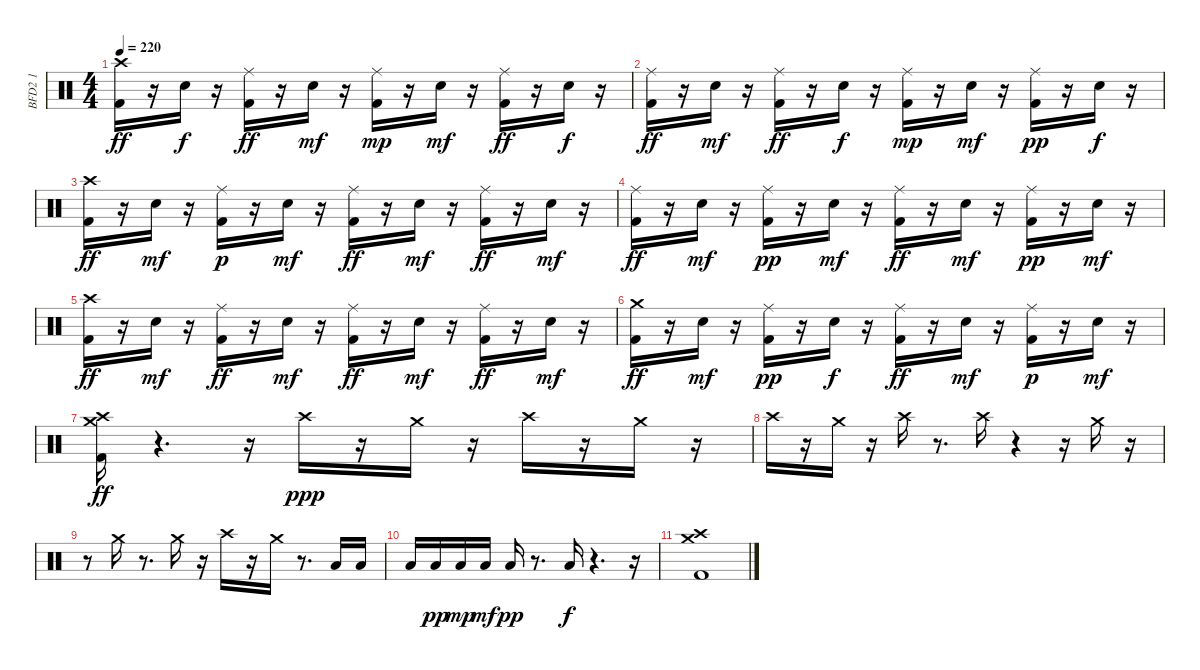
\track ("BFD2 1" "BFD2 1") {instrument percussion}
\staff {score}
\articulation defaults
\ts (4 4)
\tempo 220
\clef neutral
\ks c
("Kick (hit) 2" "Crash high (hit)").16{dy ff} r.16 "Snare (hit) 2".16{dy f} r.16 ("Ride (middle)" "Kick (hit) 2").16{dy ff} r.16 "Snare (hit) 2".16{dy mf} r.16 ("Kick (hit) 2" "Ride (middle)").16{dy mp} r.16 "Snare (hit) 2".16{dy mf} r.16 ("Ride (middle)" "Kick (hit) 2").16{dy ff} r.16 "Snare (hit) 2".16{dy f} r.16 |
("Ride (middle)" "Kick (hit) 2").16{dy ff} r.16 "Snare (hit) 2".16{dy mf} r.16 ("Ride (middle)" "Kick (hit) 2").16{dy ff} r.16 "Snare (hit) 2".16{dy f} r.16 ("Kick (hit) 2" "Ride (middle)").16{dy mp} r.16 "Snare (hit) 2".16{dy mf} r.16 ("Kick (hit) 2" "Ride (middle)").16{dy pp} r.16 "Snare (hit) 2".16{dy f} r.16 |
("Crash high (hit)" "Kick (hit) 2").16{dy ff} r.16 "Snare (hit) 2".16{dy mf} r.16 ("Kick (hit) 2" "Ride (middle)").16{dy p} r.16 "Snare (hit) 2".16{dy mf} r.16 ("Ride (middle)" "Kick (hit) 2").16{dy ff} r.16 "Snare (hit) 2".16{dy mf} r.16 ("Ride (middle)" "Kick (hit) 2").16{dy ff} r.16 "Snare (hit) 2".16{dy mf} r.16 |
("Ride (middle)" "Kick (hit) 2").16{dy ff} r.16 "Snare (hit) 2".16{dy mf} r.16 ("Kick (hit) 2" "Ride (middle)").16{dy pp} r.16 "Snare (hit) 2".16{dy mf} r.16 ("Ride (middle)" "Kick (hit) 2").16{dy ff} r.16 "Snare (hit) 2".16{dy mf} r.16 ("Kick (hit) 2" "Ride (middle)").16{dy pp} r.16 "Snare (hit) 2".16{dy mf} r.16 |
("Kick (hit) 2" "Crash high (hit)").16{dy ff} r.16 "Snare (hit) 2".16{dy mf} r.16 ("Ride (middle)" "Kick (hit) 2").16{dy ff} r.16 "Snare (hit) 2".16{dy mf} r.16 ("Ride (middle)" "Kick (hit) 2").16{dy ff} r.16 "Snare (hit) 2".16{dy mf} r.16 ("Ride (middle)" "Kick (hit) 2").16{dy ff} r.16 "Snare (hit) 2".16{dy mf} r.16 |
("Kick (hit) 2" "Crash medium (hit)").16{dy ff} r.16 "Snare (hit) 2".16{dy mf} r.16 ("Kick (hit) 2" "Ride (middle)").16{dy pp} r.16 "Snare (hit) 2".16{dy f} r.16 ("Ride (middle)" "Kick (hit) 2").16{dy ff} r.16 "Snare (hit) 2".16{dy mf} r.16 ("Kick (hit) 2" "Ride (middle)").16{dy p} r.16 "Snare (hit) 2".16{dy mf} r.16 |
("Crash high (hit)" "Crash medium (hit)" "Kick (hit) 2").16{dy ff} r.4{d} r.16 "Crash high (hit)".16{dy ppp} r.16 "Crash medium (hit)".16 r.16 "Crash high (hit)".16 r.16 "Crash medium (hit)".16 r.16 |
"Crash high (hit)".16 r.16 "Crash medium (hit)".16 r.16 "Crash high (hit)".16 r.8{d} "Crash high (hit)".16 r.4 r.16 "Crash medium (hit)".16 r.16 |
r.8 "Crash medium (hit)".16 r.8{d} "Crash medium (hit)".16 r.16 "Crash high (hit)".16 r.16 "Crash medium (hit)".16 r.8{d} "Low Tom (hit)".16 "Low Tom (hit)".16 |
"Low Tom (hit)".16 "Low Tom (hit)".16{dy pp} "Low Tom (hit)".16{dy mp} "Low Tom (hit)".16{dy mf} "Low Tom (hit)".16{dy pp} r.8{d} "Low Tom (hit)".16{dy f} r.4{d} r.16 |
("Crash high (hit)" "Crash medium (hit)" "Kick (hit) 2").1
